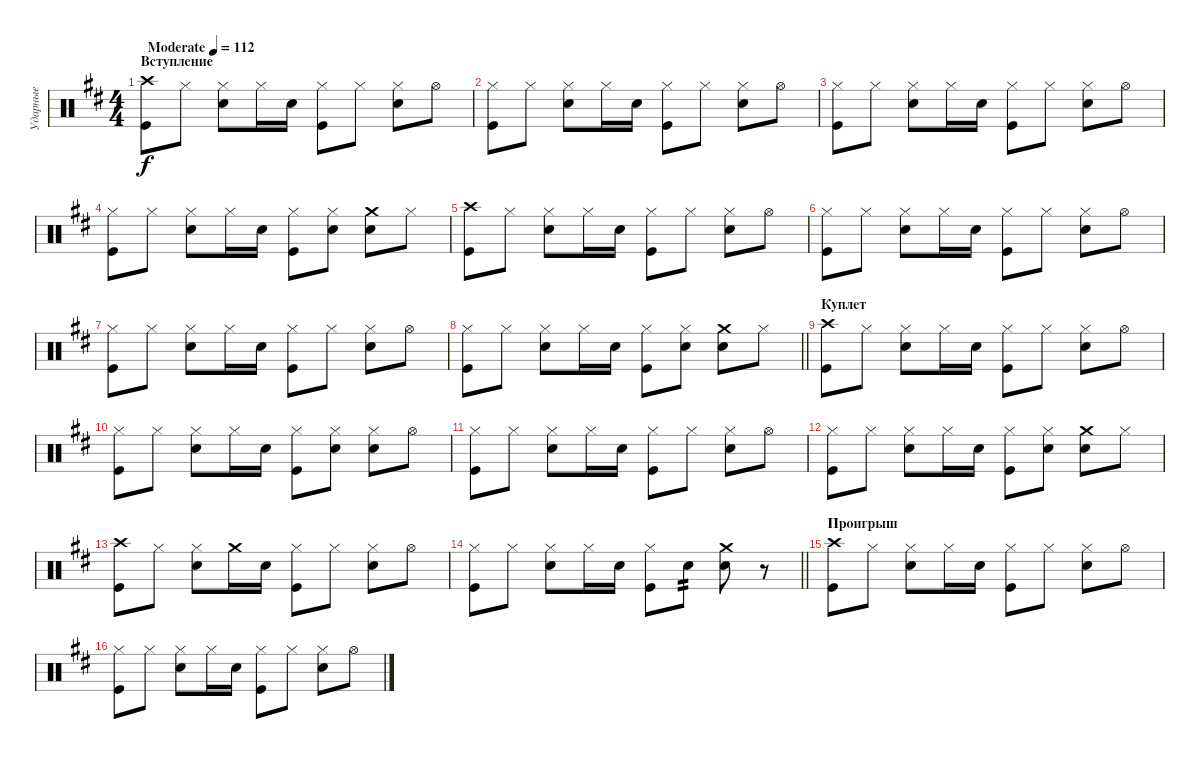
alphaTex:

\track ("Ударные" "Ударные") {instrument percussion}
\staff {score}
\articulation defaults
\ts (4 4)
\section ("" "Вступление")
\tempo (112 "Moderate")
\clef neutral
\ks bminor
("Crash high (hit)" "Kick (hit)").8{dy f} "Hi-Hat (closed)".8 ("Hi-Hat (closed)" "Electric Snare (hit)").8 "Hi-Hat (closed)".16 "Electric Snare (hit)".16 ("Hi-Hat (closed)" "Kick (hit)").8 "Hi-Hat (closed)".8 ("Hi-Hat (closed)" "Electric Snare (hit)").8 "Hi-Hat (open)".8 |
("Hi-Hat (closed)" "Kick (hit)").8 "Hi-Hat (closed)".8 ("Hi-Hat (closed)" "Electric Snare (hit)").8 "Hi-Hat (closed)".16 "Electric Snare (hit)".16 ("Hi-Hat (closed)" "Kick (hit)").8 "Hi-Hat (closed)".8 ("Hi-Hat (closed)" "Electric Snare (hit)").8 "Hi-Hat (open)".8 |
("Hi-Hat (closed)" "Kick (hit)").8 "Hi-Hat (closed)".8 ("Hi-Hat (closed)" "Electric Snare (hit)").8 "Hi-Hat (closed)".16 "Electric Snare (hit)".16 ("Hi-Hat (closed)" "Kick (hit)").8 "Hi-Hat (closed)".8 ("Hi-Hat (closed)" "Electric Snare (hit)").8 "Hi-Hat (open)".8 |
("Hi-Hat (closed)" "Kick (hit)").8 "Hi-Hat (closed)".8 ("Hi-Hat (closed)" "Electric Snare (hit)").8 "Hi-Hat (closed)".16 "Electric Snare (hit)".16 ("Hi-Hat (closed)" "Kick (hit)").8 ("Hi-Hat (closed)" "Electric Snare (hit)").8 ("Crash medium (hit)" "Electric Snare (hit)").8 "Hi-Hat (closed)".8 |
("Crash high (hit)" "Kick (hit)").8 "Hi-Hat (closed)".8 ("Hi-Hat (closed)" "Electric Snare (hit)").8 "Hi-Hat (closed)".16 "Electric Snare (hit)".16 ("Hi-Hat (closed)" "Kick (hit)").8 "Hi-Hat (closed)".8 ("Hi-Hat (closed)" "Electric Snare (hit)").8 "Hi-Hat (open)".8 |
("Hi-Hat (closed)" "Kick (hit)").8 "Hi-Hat (closed)".8 ("Hi-Hat (closed)" "Electric Snare (hit)").8 "Hi-Hat (closed)".16 "Electric Snare (hit)".16 ("Hi-Hat (closed)" "Kick (hit)").8 "Hi-Hat (closed)".8 ("Hi-Hat (closed)" "Electric Snare (hit)").8 "Hi-Hat (open)".8 |
("Hi-Hat (closed)" "Kick (hit)").8 "Hi-Hat (closed)".8 ("Hi-Hat (closed)" "Electric Snare (hit)").8 "Hi-Hat (closed)".16 "Electric Snare (hit)".16 ("Hi-Hat (closed)" "Kick (hit)").8 "Hi-Hat (closed)".8 ("Hi-Hat (closed)" "Electric Snare (hit)").8 "Hi-Hat (open)".8 |
\barLineRight lightlight
("Hi-Hat (closed)" "Kick (hit)").8 "Hi-Hat (closed)".8 ("Hi-Hat (closed)" "Electric Snare (hit)").8 "Hi-Hat (closed)".16 "Electric Snare (hit)".16 ("Hi-Hat (closed)" "Kick (hit)").8 ("Hi-Hat (closed)" "Electric Snare (hit)").8 ("Crash medium (hit)" "Electric Snare (hit)").8 "Hi-Hat (closed)".8 |
\section ("" "Куплет")
("Crash high (hit)" "Kick (hit)").8 "Hi-Hat (closed)".8 ("Hi-Hat (closed)" "Electric Snare (hit)").8 "Hi-Hat (closed)".16 "Electric Snare (hit)".16 ("Hi-Hat (closed)" "Kick (hit)").8 "Hi-Hat (closed)".8 ("Hi-Hat (closed)" "Electric Snare (hit)").8 "Hi-Hat (open)".8 |
("Hi-Hat (closed)" "Kick (hit)").8 "Hi-Hat (closed)".8 ("Hi-Hat (closed)" "Electric Snare (hit)").8 "Hi-Hat (closed)".16 "Electric Snare (hit)".16 ("Hi-Hat (closed)" "Kick (hit)").8 ("Hi-Hat (closed)" "Electric Snare (hit)").8 ("Hi-Hat (closed)" "Electric Snare (hit)").8 "Hi-Hat (open)".8 |
("Hi-Hat (closed)" "Kick (hit)").8 "Hi-Hat (closed)".8 ("Hi-Hat (closed)" "Electric Snare (hit)").8 "Hi-Hat (closed)".16 "Electric Snare (hit)".16 ("Hi-Hat (closed)" "Kick (hit)").8 "Hi-Hat (closed)".8 ("Hi-Hat (closed)" "Electric Snare (hit)").8 "Hi-Hat (open)".8 |
("Hi-Hat (closed)" "Kick (hit)").8 "Hi-Hat (closed)".8 ("Hi-Hat (closed)" "Electric Snare (hit)").8 "Hi-Hat (closed)".16 "Electric Snare (hit)".16 ("Hi-Hat (closed)" "Kick (hit)").8 ("Hi-Hat (closed)" "Electric Snare (hit)").8 ("Crash medium (hit)" "Electric Snare (hit)").8 "Hi-Hat (closed)".8 |
("Crash high (hit)" "Kick (hit)").8 "Hi-Hat (closed)".8 ("Hi-Hat (closed)" "Electric Snare (hit)").8 "Crash medium (hit)".16 "Electric Snare (hit)".16 ("Hi-Hat (closed)" "Kick (hit)").8 "Hi-Hat (closed)".8 ("Hi-Hat (closed)" "Electric Snare (hit)").8 "Hi-Hat (open)".8 |
\barLineRight lightlight
("Hi-Hat (closed)" "Kick (hit)").8 "Hi-Hat (closed)".8 ("Hi-Hat (closed)" "Electric Snare (hit)").8 "Hi-Hat (closed)".16 "Electric Snare (hit)".16 ("Hi-Hat (closed)" "Kick (hit)").8 "Electric Snare (hit)".8{tp 2} ("Crash medium (hit)" "Electric Snare (hit)").8 r.8 |
\section ("" "Проигрыш")
("Crash high (hit)" "Kick (hit)").8 "Hi-Hat (closed)".8 ("Hi-Hat (closed)" "Electric Snare (hit)").8 "Hi-Hat (closed)".16 "Electric Snare (hit)".16 ("Hi-Hat (closed)" "Kick (hit)").8 "Hi-Hat (closed)".8 ("Hi-Hat (closed)" "Electric Snare (hit)").8 "Hi-Hat (open)".8 |
("Hi-Hat (closed)" "Kick (hit)").8 "Hi-Hat (closed)".8 ("Hi-Hat (closed)" "Electric Snare (hit)").8 "Hi-Hat (closed)".16 "Electric Snare (hit)".16 ("Hi-Hat (closed)" "Kick (hit)").8 "Hi-Hat (closed)".8 ("Hi-Hat (closed)" "Electric Snare (hit)").8 "Hi-Hat (open)".8
